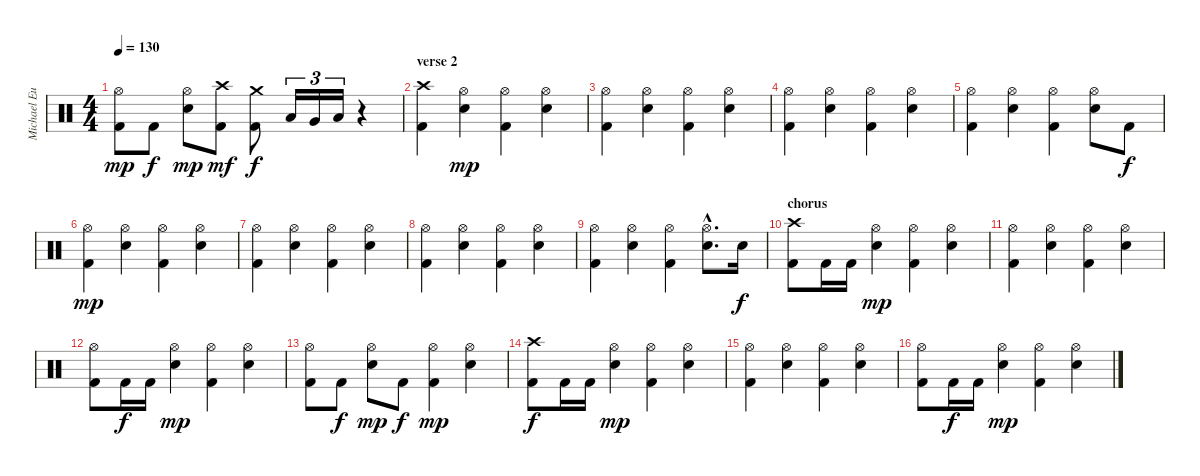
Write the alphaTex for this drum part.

\track ("Michael Eurich" "Michael Eu") {instrument percussion}
\staff {score}
\articulation defaults
\ts (4 4)
\tempo 130
\clef neutral
\ks c
("Kick (hit) 2" "Hi-Hat (open)").8{dy mp} "Kick (hit) 2".8{dy f} ("Hi-Hat (open)" "Snare (hit) 2").8{dy mp} ("Kick (hit) 2" "Crash high (hit)").8{dy mf} ("Kick (hit) 2" "Crash medium (hit)").8{dy f} "Low Tom (hit)".16{tu (3 2)} "Very Low Tom (hit)".16{tu (3 2)} "Low Floor Tom (hit)".16{tu (3 2)} r.4 |
\section ("" "verse 2")
("Kick (hit) 2" "Crash high (hit)").4 ("Hi-Hat (open)" "Snare (hit) 2").4{dy mp} ("Kick (hit) 2" "Hi-Hat (open)").4 ("Hi-Hat (open)" "Snare (hit) 2").4 |
("Kick (hit) 2" "Hi-Hat (open)").4 ("Hi-Hat (open)" "Snare (hit) 2").4 ("Kick (hit) 2" "Hi-Hat (open)").4 ("Hi-Hat (open)" "Snare (hit) 2").4 |
("Kick (hit) 2" "Hi-Hat (open)").4 ("Hi-Hat (open)" "Snare (hit) 2").4 ("Kick (hit) 2" "Hi-Hat (open)").4 ("Hi-Hat (open)" "Snare (hit) 2").4 |
("Kick (hit) 2" "Hi-Hat (open)").4 ("Hi-Hat (open)" "Snare (hit) 2").4 ("Kick (hit) 2" "Hi-Hat (open)").4 ("Hi-Hat (open)" "Snare (hit) 2").8 "Kick (hit) 2".8{dy f} |
("Kick (hit) 2" "Hi-Hat (open)").4{dy mp} ("Hi-Hat (open)" "Snare (hit) 2").4 ("Kick (hit) 2" "Hi-Hat (open)").4 ("Hi-Hat (open)" "Snare (hit) 2").4 |
("Kick (hit) 2" "Hi-Hat (open)").4 ("Hi-Hat (open)" "Snare (hit) 2").4 ("Kick (hit) 2" "Hi-Hat (open)").4 ("Hi-Hat (open)" "Snare (hit) 2").4 |
("Kick (hit) 2" "Hi-Hat (open)").4 ("Hi-Hat (open)" "Snare (hit) 2").4 ("Kick (hit) 2" "Hi-Hat (open)").4 ("Hi-Hat (open)" "Snare (hit) 2").4 |
("Kick (hit) 2" "Hi-Hat (open)").4 ("Hi-Hat (open)" "Snare (hit) 2").4 ("Kick (hit) 2" "Hi-Hat (open)").4 ("Hi-Hat (open)"{hac} "Snare (hit) 2"{hac}).8{d} "Snare (hit) 2".16{dy f} |
\section ("" "chorus")
("Kick (hit) 2" "Crash high (hit)").8 "Kick (hit) 2".16 "Kick (hit) 2".16 ("Hi-Hat (open)" "Snare (hit) 2").4{dy mp} ("Kick (hit) 2" "Hi-Hat (open)").4 ("Hi-Hat (open)" "Snare (hit) 2").4 |
("Kick (hit) 2" "Hi-Hat (open)").4 ("Hi-Hat (open)" "Snare (hit) 2").4 ("Kick (hit) 2" "Hi-Hat (open)").4 ("Hi-Hat (open)" "Snare (hit) 2").4 |
("Kick (hit) 2" "Hi-Hat (open)").8 "Kick (hit) 2".16{dy f} "Kick (hit) 2".16 ("Hi-Hat (open)" "Snare (hit) 2").4{dy mp} ("Kick (hit) 2" "Hi-Hat (open)").4 ("Hi-Hat (open)" "Snare (hit) 2").4 |
("Kick (hit) 2" "Hi-Hat (open)").8 "Kick (hit) 2".8{dy f} ("Hi-Hat (open)" "Snare (hit) 2").8{dy mp} "Kick (hit) 2".8{dy f} ("Kick (hit) 2" "Hi-Hat (open)").4{dy mp} ("Hi-Hat (open)" "Snare (hit) 2").4 |
("Kick (hit) 2" "Crash high (hit)").8{dy f} "Kick (hit) 2".16 "Kick (hit) 2".16 ("Hi-Hat (open)" "Snare (hit) 2").4{dy mp} ("Kick (hit) 2" "Hi-Hat (open)").4 ("Hi-Hat (open)" "Snare (hit) 2").4 |
("Kick (hit) 2" "Hi-Hat (open)").4 ("Hi-Hat (open)" "Snare (hit) 2").4 ("Kick (hit) 2" "Hi-Hat (open)").4 ("Hi-Hat (open)" "Snare (hit) 2").4 |
("Kick (hit) 2" "Hi-Hat (open)").8 "Kick (hit) 2".16{dy f} "Kick (hit) 2".16 ("Hi-Hat (open)" "Snare (hit) 2").4{dy mp} ("Kick (hit) 2" "Hi-Hat (open)").4 ("Hi-Hat (open)" "Snare (hit) 2").4
